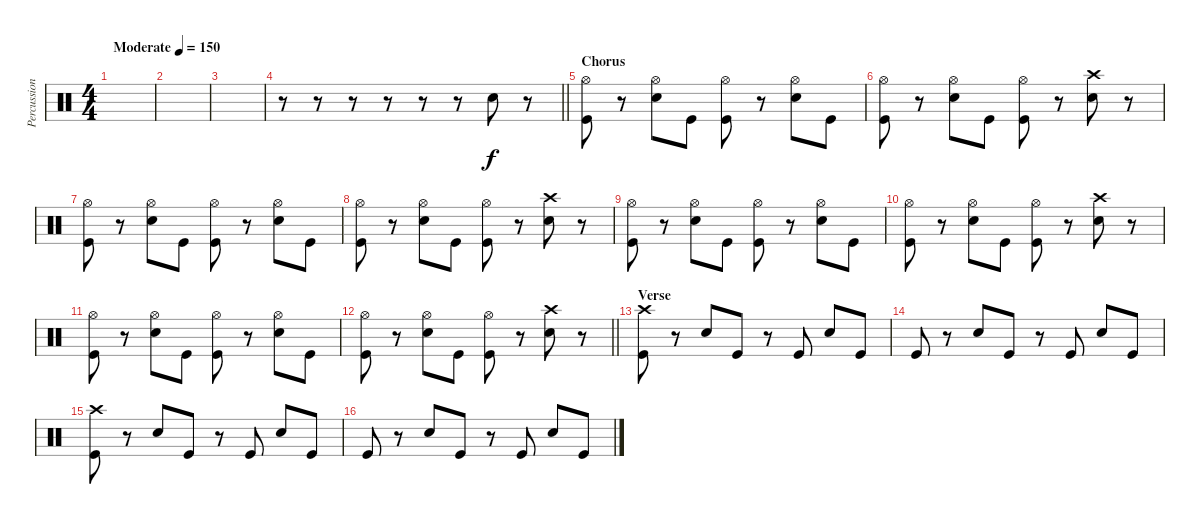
\track ("Percussion" "Percussion") {instrument percussion}
\staff
\articulation defaults
\ts (4 4)
\tempo (150 "Moderate")
\clef neutral
\ks c
|
|
|
\barLineRight lightlight
r.8 r.8 r.8 r.8 r.8 r.8 "Electric Snare (hit)".8 r.8 |
\section ("" "Chorus")
("Hi-Hat (open)" "Kick (hit)").8 r.8 ("Hi-Hat (open)" "Electric Snare (hit)").8 "Kick (hit)".8 ("Hi-Hat (open)" "Kick (hit)").8 r.8 ("Hi-Hat (open)" "Electric Snare (hit)").8 "Kick (hit)".8 |
("Hi-Hat (open)" "Kick (hit)").8 r.8 ("Hi-Hat (open)" "Electric Snare (hit)").8 "Kick (hit)".8 ("Hi-Hat (open)" "Kick (hit)").8 r.8 ("Crash high (hit)" "Electric Snare (hit)").8 r.8 |
("Hi-Hat (open)" "Kick (hit)").8 r.8 ("Hi-Hat (open)" "Electric Snare (hit)").8 "Kick (hit)".8 ("Hi-Hat (open)" "Kick (hit)").8 r.8 ("Hi-Hat (open)" "Electric Snare (hit)").8 "Kick (hit)".8 |
("Hi-Hat (open)" "Kick (hit)").8 r.8 ("Hi-Hat (open)" "Electric Snare (hit)").8 "Kick (hit)".8 ("Hi-Hat (open)" "Kick (hit)").8 r.8 ("Crash high (hit)" "Electric Snare (hit)").8 r.8 |
("Hi-Hat (open)" "Kick (hit)").8 r.8 ("Hi-Hat (open)" "Electric Snare (hit)").8 "Kick (hit)".8 ("Hi-Hat (open)" "Kick (hit)").8 r.8 ("Hi-Hat (open)" "Electric Snare (hit)").8 "Kick (hit)".8 |
("Hi-Hat (open)" "Kick (hit)").8 r.8 ("Hi-Hat (open)" "Electric Snare (hit)").8 "Kick (hit)".8 ("Hi-Hat (open)" "Kick (hit)").8 r.8 ("Crash high (hit)" "Electric Snare (hit)").8 r.8 |
("Hi-Hat (open)" "Kick (hit)").8 r.8 ("Hi-Hat (open)" "Electric Snare (hit)").8 "Kick (hit)".8 ("Hi-Hat (open)" "Kick (hit)").8 r.8 ("Hi-Hat (open)" "Electric Snare (hit)").8 "Kick (hit)".8 |
\barLineRight lightlight
("Hi-Hat (open)" "Kick (hit)").8 r.8 ("Hi-Hat (open)" "Electric Snare (hit)").8 "Kick (hit)".8 ("Hi-Hat (open)" "Kick (hit)").8 r.8 ("Crash high (hit)" "Electric Snare (hit)").8 r.8 |
\section ("" "Verse")
("Crash high (hit)" "Kick (hit)").8 r.8 "Electric Snare (hit)".8 "Kick (hit)".8 r.8 "Kick (hit)".8 "Electric Snare (hit)".8 "Kick (hit)".8 |
"Kick (hit)".8 r.8 "Electric Snare (hit)".8 "Kick (hit)".8 r.8 "Kick (hit)".8 "Electric Snare (hit)".8 "Kick (hit)".8 |
("Crash high (hit)" "Kick (hit)").8 r.8 "Electric Snare (hit)".8 "Kick (hit)".8 r.8 "Kick (hit)".8 "Electric Snare (hit)".8 "Kick (hit)".8 |
"Kick (hit)".8 r.8 "Electric Snare (hit)".8 "Kick (hit)".8 r.8 "Kick (hit)".8 "Electric Snare (hit)".8 "Kick (hit)".8
